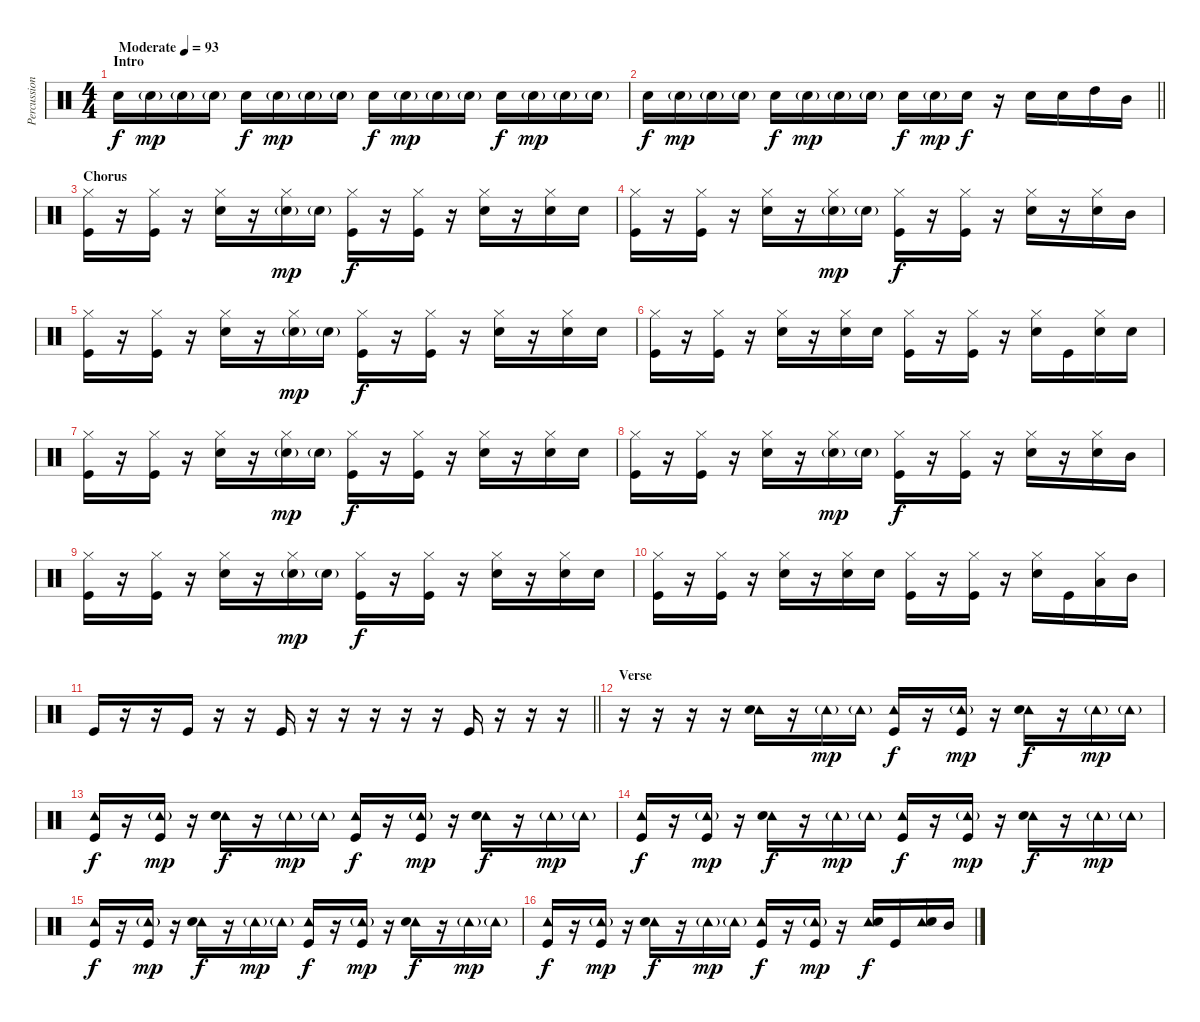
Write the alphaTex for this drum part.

\track ("Percussion" "Percussion") {instrument percussion}
\staff {score}
\articulation defaults
\ts (4 4)
\section ("" "Intro")
\tempo (93 "Moderate")
\clef neutral
\ks c "Snare (hit) 2".16{dy f} "Snare (hit) 2"{g}.16{dy mp} "Snare (hit) 2"{g}.16 "Snare (hit) 2"{g}.16 "Snare (hit) 2".16{dy f} "Snare (hit) 2"{g}.16{dy mp} "Snare (hit) 2"{g}.16 "Snare (hit) 2"{g}.16 "Snare (hit) 2".16{dy f} "Snare (hit) 2"{g}.16{dy mp} "Snare (hit) 2"{g}.16 "Snare (hit) 2"{g}.16 "Snare (hit) 2".16{dy f} "Snare (hit) 2"{g}.16{dy mp} "Snare (hit) 2"{g}.16 "Snare (hit) 2"{g}.16
|
\barLineRight lightlight "Snare (hit) 2".16{dy f} "Snare (hit) 2"{g}.16{dy mp} "Snare (hit) 2"{g}.16 "Snare (hit) 2"{g}.16 "Snare (hit) 2".16{dy f} "Snare (hit) 2"{g}.16{dy mp} "Snare (hit) 2"{g}.16 "Snare (hit) 2"{g}.16 "Snare (hit) 2".16{dy f} "Snare (hit) 2"{g}.16{dy mp} "Snare (hit) 2".16{dy f}
r.16 "Snare (hit) 2".16 "Snare (hit) 2".16 "High Tom (hit)".16 "Mid Tom (hit)".16 |
\section ("" "Chorus")
("Hi-Hat (closed)" "Kick (hit)").16 r.16 ("Hi-Hat (closed)" "Kick (hit)").16 r.16 ("Hi-Hat (closed)" "Snare (hit) 2").16 r.16 ("Hi-Hat (closed)" "Snare (hit) 2"{g}).16{dy mp} "Snare (hit) 2"{g}.16 ("Hi-Hat (closed)" "Kick (hit)").16{dy f} r.16 ("Hi-Hat (closed)" "Kick (hit)").16 r.16 ("Hi-Hat (closed)" "Snare (hit) 2").16 r.16 ("Hi-Hat (closed)" "Snare (hit) 2").16 "Snare (hit) 2".16 |
("Hi-Hat (closed)" "Kick (hit)").16 r.16 ("Hi-Hat (closed)" "Kick (hit)").16 r.16 ("Hi-Hat (closed)" "Snare (hit) 2").16 r.16 ("Hi-Hat (closed)" "Snare (hit) 2"{g}).16{dy mp} "Snare (hit) 2"{g}.16 ("Hi-Hat (closed)" "Kick (hit)").16{dy f} r.16 ("Hi-Hat (closed)" "Kick (hit)").16 r.16 ("Hi-Hat (closed)" "Snare (hit) 2").16 r.16 ("Hi-Hat (closed)" "Snare (hit) 2").16 "Mid Tom (hit)".16 |
("Hi-Hat (closed)" "Kick (hit)").16 r.16 ("Hi-Hat (closed)" "Kick (hit)").16 r.16 ("Hi-Hat (closed)" "Snare (hit) 2").16 r.16 ("Hi-Hat (closed)" "Snare (hit) 2"{g}).16{dy mp} "Snare (hit) 2"{g}.16 ("Hi-Hat (closed)" "Kick (hit)").16{dy f} r.16 ("Hi-Hat (closed)" "Kick (hit)").16 r.16 ("Hi-Hat (closed)" "Snare (hit) 2").16 r.16 ("Hi-Hat (closed)" "Snare (hit) 2").16 "Snare (hit) 2".16 |
("Hi-Hat (closed)" "Kick (hit)").16 r.16 ("Hi-Hat (closed)" "Kick (hit)").16 r.16 ("Hi-Hat (closed)" "Snare (hit) 2").16 r.16 ("Hi-Hat (closed)" "Snare (hit) 2").16 "Snare (hit) 2".16 ("Hi-Hat (closed)" "Kick (hit)").16 r.16 ("Hi-Hat (closed)" "Kick (hit)").16 r.16 ("Hi-Hat (closed)" "Snare (hit) 2").16 "Kick (hit)".16 ("Hi-Hat (closed)" "Snare (hit) 2").16 "Snare (hit) 2".16 |
("Hi-Hat (closed)" "Kick (hit)").16 r.16 ("Hi-Hat (closed)" "Kick (hit)").16 r.16 ("Hi-Hat (closed)" "Snare (hit) 2").16 r.16 ("Hi-Hat (closed)" "Snare (hit) 2"{g}).16{dy mp} "Snare (hit) 2"{g}.16 ("Hi-Hat (closed)" "Kick (hit)").16{dy f} r.16 ("Hi-Hat (closed)" "Kick (hit)").16 r.16 ("Hi-Hat (closed)" "Snare (hit) 2").16 r.16 ("Hi-Hat (closed)" "Snare (hit) 2").16 "Snare (hit) 2".16 |
("Hi-Hat (closed)" "Kick (hit)").16 r.16 ("Hi-Hat (closed)" "Kick (hit)").16 r.16 ("Hi-Hat (closed)" "Snare (hit) 2").16 r.16 ("Hi-Hat (closed)" "Snare (hit) 2"{g}).16{dy mp} "Snare (hit) 2"{g}.16 ("Hi-Hat (closed)" "Kick (hit)").16{dy f} r.16 ("Hi-Hat (closed)" "Kick (hit)").16 r.16 ("Hi-Hat (closed)" "Snare (hit) 2").16 r.16 ("Hi-Hat (closed)" "Snare (hit) 2").16 "Mid Tom (hit)".16 |
("Hi-Hat (closed)" "Kick (hit)").16 r.16 ("Hi-Hat (closed)" "Kick (hit)").16 r.16 ("Hi-Hat (closed)" "Snare (hit) 2").16 r.16 ("Hi-Hat (closed)" "Snare (hit) 2"{g}).16{dy mp} "Snare (hit) 2"{g}.16 ("Hi-Hat (closed)" "Kick (hit)").16{dy f} r.16 ("Hi-Hat (closed)" "Kick (hit)").16 r.16 ("Hi-Hat (closed)" "Snare (hit) 2").16 r.16 ("Hi-Hat (closed)" "Snare (hit) 2").16 "Snare (hit) 2".16 |
("Hi-Hat (closed)" "Kick (hit)").16 r.16 ("Hi-Hat (closed)" "Kick (hit)").16 r.16 ("Hi-Hat (closed)" "Snare (hit) 2").16 r.16 ("Hi-Hat (closed)" "Snare (hit) 2").16 "Snare (hit) 2".16 ("Hi-Hat (closed)" "Kick (hit)").16 r.16 ("Hi-Hat (closed)" "Kick (hit)").16 r.16 ("Hi-Hat (closed)" "Snare (hit) 2").16 "Kick (hit)".16 ("Hi-Hat (closed)" "Low Tom (hit)").16 "Mid Tom (hit)".16 |
\barLineRight lightlight "Kick (hit)".16
r.16 r.16 "Kick (hit)".16 r.16 r.16 "Kick (hit)".16 r.16 r.16 r.16 r.16 r.16 "Kick (hit)".16 r.16 r.16 r.16 |
\section ("" "Verse")
r.16 r.16 r.16 r.16 ("Tambourine (hit)" "Snare (hit) 2").16 r.16 "Tambourine (hit)"{g}.16{dy mp} "Tambourine (hit)"{g}.16 ("Tambourine (hit)" "Kick (hit)").16{dy f} r.16 ("Tambourine (hit)"{g} "Kick (hit)").16{dy mp} r.16 ("Tambourine (hit)" "Snare (hit) 2").16{dy f} r.16 "Tambourine (hit)"{g}.16{dy mp} "Tambourine (hit)"{g}.16 |
("Tambourine (hit)" "Kick (hit)").16{dy f} r.16 ("Tambourine (hit)"{g} "Kick (hit)").16{dy mp} r.16 ("Tambourine (hit)" "Snare (hit) 2").16{dy f} r.16 "Tambourine (hit)"{g}.16{dy mp} "Tambourine (hit)"{g}.16 ("Tambourine (hit)" "Kick (hit)").16{dy f} r.16 ("Tambourine (hit)"{g} "Kick (hit)").16{dy mp} r.16 ("Tambourine (hit)" "Snare (hit) 2").16{dy f} r.16 "Tambourine (hit)"{g}.16{dy mp} "Tambourine (hit)"{g}.16 |
("Tambourine (hit)" "Kick (hit)").16{dy f} r.16 ("Tambourine (hit)"{g} "Kick (hit)").16{dy mp} r.16 ("Tambourine (hit)" "Snare (hit) 2").16{dy f} r.16 "Tambourine (hit)"{g}.16{dy mp} "Tambourine (hit)"{g}.16 ("Tambourine (hit)" "Kick (hit)").16{dy f} r.16 ("Tambourine (hit)"{g} "Kick (hit)").16{dy mp} r.16 ("Tambourine (hit)" "Snare (hit) 2").16{dy f} r.16 "Tambourine (hit)"{g}.16{dy mp} "Tambourine (hit)"{g}.16 |
("Tambourine (hit)" "Kick (hit)").16{dy f} r.16 ("Tambourine (hit)"{g} "Kick (hit)").16{dy mp} r.16 ("Tambourine (hit)" "Snare (hit) 2").16{dy f} r.16 "Tambourine (hit)"{g}.16{dy mp} "Tambourine (hit)"{g}.16 ("Tambourine (hit)" "Kick (hit)").16{dy f} r.16 ("Tambourine (hit)"{g} "Kick (hit)").16{dy mp} r.16 ("Tambourine (hit)" "Snare (hit) 2").16{dy f} r.16 "Tambourine (hit)"{g}.16{dy mp} "Tambourine (hit)"{g}.16 |
("Tambourine (hit)" "Kick (hit)").16{dy f} r.16 ("Tambourine (hit)"{g} "Kick (hit)").16{dy mp} r.16 ("Tambourine (hit)" "Snare (hit) 2").16{dy f} r.16 "Tambourine (hit)"{g}.16{dy mp} "Tambourine (hit)"{g}.16 ("Tambourine (hit)" "Kick (hit)").16{dy f} r.16 ("Tambourine (hit)"{g} "Kick (hit)").16{dy mp} r.16 ("Tambourine (hit)" "Snare (hit) 2").16{dy f} "Kick (hit)".16 ("Tambourine (hit)" "Snare (hit) 2").16 "Mid Tom (hit)".16
